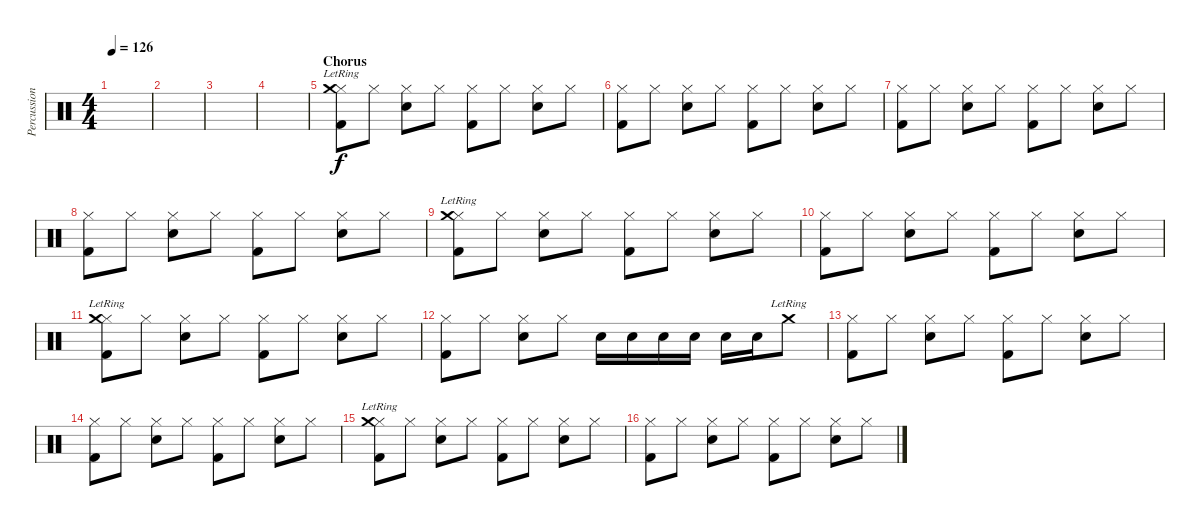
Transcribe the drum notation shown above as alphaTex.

\track ("Percussion" "Percussion") {instrument percussion}
\staff {score}
\articulation defaults
\ts (4 4)
\tempo 126
\clef neutral
\ks c
|
|
|
|
\section ("" "Chorus")
("Hi-Hat (closed)" "Kick (hit) 2" "Crash medium (hit)"{lr}).8 "Hi-Hat (closed)".8 ("Hi-Hat (closed)" "Snare (hit) 2").8 "Hi-Hat (closed)".8 ("Hi-Hat (closed)" "Kick (hit) 2").8 "Hi-Hat (closed)".8 ("Hi-Hat (closed)" "Snare (hit) 2").8 "Hi-Hat (closed)".8 |
("Hi-Hat (closed)" "Kick (hit) 2").8 "Hi-Hat (closed)".8 ("Hi-Hat (closed)" "Snare (hit) 2").8 "Hi-Hat (closed)".8 ("Hi-Hat (closed)" "Kick (hit) 2").8 "Hi-Hat (closed)".8 ("Hi-Hat (closed)" "Snare (hit) 2").8 "Hi-Hat (closed)".8 |
("Hi-Hat (closed)" "Kick (hit) 2").8 "Hi-Hat (closed)".8 ("Hi-Hat (closed)" "Snare (hit) 2").8 "Hi-Hat (closed)".8 ("Hi-Hat (closed)" "Kick (hit) 2").8 "Hi-Hat (closed)".8 ("Hi-Hat (closed)" "Snare (hit) 2").8 "Hi-Hat (closed)".8 |
("Hi-Hat (closed)" "Kick (hit) 2").8 "Hi-Hat (closed)".8 ("Hi-Hat (closed)" "Snare (hit) 2").8 "Hi-Hat (closed)".8 ("Hi-Hat (closed)" "Kick (hit) 2").8 "Hi-Hat (closed)".8 ("Hi-Hat (closed)" "Snare (hit) 2").8 "Hi-Hat (closed)".8 |
("Hi-Hat (closed)" "Kick (hit) 2" "Crash medium (hit)"{lr}).8 "Hi-Hat (closed)".8 ("Hi-Hat (closed)" "Snare (hit) 2").8 "Hi-Hat (closed)".8 ("Hi-Hat (closed)" "Kick (hit) 2").8 "Hi-Hat (closed)".8 ("Hi-Hat (closed)" "Snare (hit) 2").8 "Hi-Hat (closed)".8 |
("Hi-Hat (closed)" "Kick (hit) 2").8 "Hi-Hat (closed)".8 ("Hi-Hat (closed)" "Snare (hit) 2").8 "Hi-Hat (closed)".8 ("Hi-Hat (closed)" "Kick (hit) 2").8 "Hi-Hat (closed)".8 ("Hi-Hat (closed)" "Snare (hit) 2").8 "Hi-Hat (closed)".8 |
("Hi-Hat (closed)" "Kick (hit) 2" "Crash medium (hit)"{lr}).8 "Hi-Hat (closed)".8 ("Hi-Hat (closed)" "Snare (hit) 2").8 "Hi-Hat (closed)".8 ("Hi-Hat (closed)" "Kick (hit) 2").8 "Hi-Hat (closed)".8 ("Hi-Hat (closed)" "Snare (hit) 2").8 "Hi-Hat (closed)".8 |
("Hi-Hat (closed)" "Kick (hit) 2").8 "Hi-Hat (closed)".8 ("Hi-Hat (closed)" "Snare (hit) 2").8 "Hi-Hat (closed)".8 "Snare (hit) 2".16 "Snare (hit) 2".16 "Snare (hit) 2".16 "Snare (hit) 2".16 "Snare (hit) 2".16 "Snare (hit) 2".16 "Crash medium (hit)"{lr}.8 |
("Hi-Hat (closed)" "Kick (hit) 2").8 "Hi-Hat (closed)".8 ("Hi-Hat (closed)" "Snare (hit) 2").8 "Hi-Hat (closed)".8 ("Hi-Hat (closed)" "Kick (hit) 2").8 "Hi-Hat (closed)".8 ("Hi-Hat (closed)" "Snare (hit) 2").8 "Hi-Hat (closed)".8 |
("Hi-Hat (closed)" "Kick (hit) 2").8 "Hi-Hat (closed)".8 ("Hi-Hat (closed)" "Snare (hit) 2").8 "Hi-Hat (closed)".8 ("Hi-Hat (closed)" "Kick (hit) 2").8 "Hi-Hat (closed)".8 ("Hi-Hat (closed)" "Snare (hit) 2").8 "Hi-Hat (closed)".8 |
("Hi-Hat (closed)" "Kick (hit) 2" "Crash medium (hit)"{lr}).8 "Hi-Hat (closed)".8 ("Hi-Hat (closed)" "Snare (hit) 2").8 "Hi-Hat (closed)".8 ("Hi-Hat (closed)" "Kick (hit) 2").8 "Hi-Hat (closed)".8 ("Hi-Hat (closed)" "Snare (hit) 2").8 "Hi-Hat (closed)".8 |
("Hi-Hat (closed)" "Kick (hit) 2").8 "Hi-Hat (closed)".8 ("Hi-Hat (closed)" "Snare (hit) 2").8 "Hi-Hat (closed)".8 ("Hi-Hat (closed)" "Kick (hit) 2").8 "Hi-Hat (closed)".8 ("Hi-Hat (closed)" "Snare (hit) 2").8 "Hi-Hat (closed)".8
